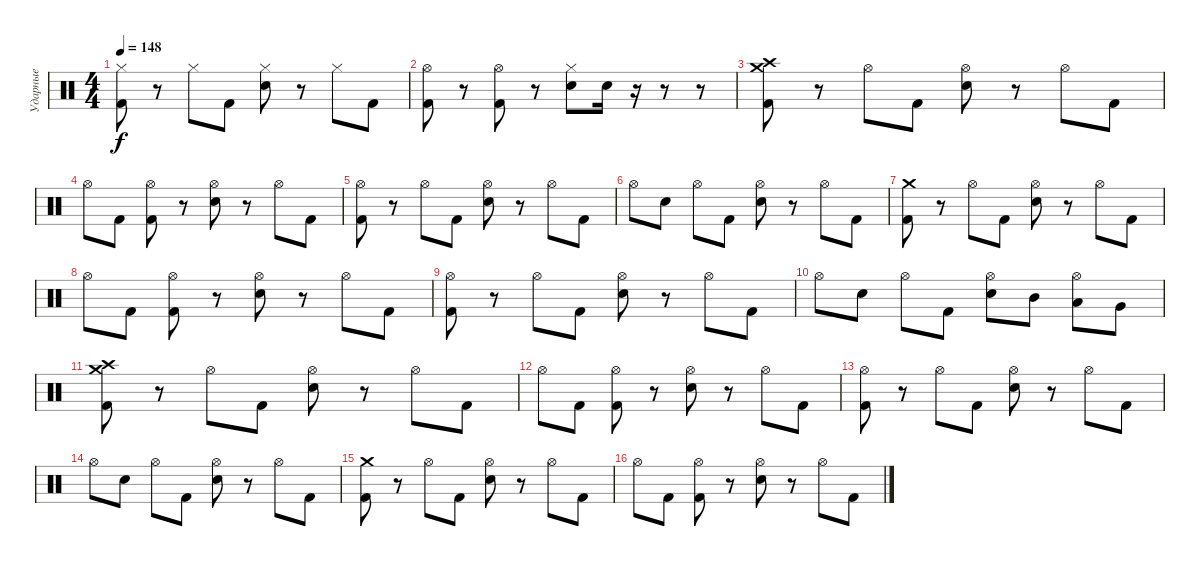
\track ("Ударные" "Ударные") {instrument percussion}
\staff {score}
\articulation defaults
\ts (4 4)
\tempo 148
\clef neutral
\ks c
("Hi-Hat (closed)" "Kick (hit) 2").8{dy f} r.8 "Hi-Hat (closed)".8 "Kick (hit) 2".8 ("Hi-Hat (closed)" "Electric Snare (hit)").8 r.8 "Hi-Hat (closed)".8 "Kick (hit) 2".8 |
("Hi-Hat (open)" "Kick (hit) 2").8 r.8 ("Hi-Hat (open)" "Kick (hit) 2").8 r.8 ("Hi-Hat (closed)" "Electric Snare (hit)").8 "Electric Snare (hit)".16 r.16 r.8 r.8 |
("Crash medium (hit)" "Crash high (hit)" "Kick (hit) 2").8 r.8 "Hi-Hat (open)".8 "Kick (hit) 2".8 ("Hi-Hat (open)" "Electric Snare (hit)").8 r.8 "Hi-Hat (open)".8 "Kick (hit) 2".8 |
"Hi-Hat (open)".8 "Kick (hit) 2".8 ("Hi-Hat (open)" "Kick (hit) 2").8 r.8 ("Hi-Hat (open)" "Electric Snare (hit)").8 r.8 "Hi-Hat (open)".8 "Kick (hit) 2".8 |
("Hi-Hat (open)" "Kick (hit) 2").8 r.8 "Hi-Hat (open)".8 "Kick (hit) 2".8 ("Hi-Hat (open)" "Electric Snare (hit)").8 r.8 "Hi-Hat (open)".8 "Kick (hit) 2".8 |
"Hi-Hat (open)".8 "Electric Snare (hit)".8 "Hi-Hat (open)".8 "Kick (hit) 2".8 ("Hi-Hat (open)" "Electric Snare (hit)").8 r.8 "Hi-Hat (open)".8 "Kick (hit) 2".8 |
("Crash medium (hit)" "Kick (hit) 2").8 r.8 "Hi-Hat (open)".8 "Kick (hit) 2".8 ("Hi-Hat (open)" "Electric Snare (hit)").8 r.8 "Hi-Hat (open)".8 "Kick (hit) 2".8 |
"Hi-Hat (open)".8 "Kick (hit) 2".8 ("Hi-Hat (open)" "Kick (hit) 2").8 r.8 ("Hi-Hat (open)" "Electric Snare (hit)").8 r.8 "Hi-Hat (open)".8 "Kick (hit) 2".8 |
("Hi-Hat (open)" "Kick (hit) 2").8 r.8 "Hi-Hat (open)".8 "Kick (hit) 2".8 ("Hi-Hat (open)" "Electric Snare (hit)").8 r.8 "Hi-Hat (open)".8 "Kick (hit) 2".8 |
"Hi-Hat (open)".8 "Electric Snare (hit)".8 "Hi-Hat (open)".8 "Kick (hit) 2".8 ("Hi-Hat (open)" "Electric Snare (hit)").8 "Mid Tom (hit)".8 ("Hi-Hat (open)" "Low Tom (hit)").8 "Very Low Tom (hit)".8 |
("Crash medium (hit)" "Crash high (hit)" "Kick (hit) 2").8 r.8 "Hi-Hat (open)".8 "Kick (hit) 2".8 ("Hi-Hat (open)" "Electric Snare (hit)").8 r.8 "Hi-Hat (open)".8 "Kick (hit) 2".8 |
"Hi-Hat (open)".8 "Kick (hit) 2".8 ("Hi-Hat (open)" "Kick (hit) 2").8 r.8 ("Hi-Hat (open)" "Electric Snare (hit)").8 r.8 "Hi-Hat (open)".8 "Kick (hit) 2".8 |
("Hi-Hat (open)" "Kick (hit) 2").8 r.8 "Hi-Hat (open)".8 "Kick (hit) 2".8 ("Hi-Hat (open)" "Electric Snare (hit)").8 r.8 "Hi-Hat (open)".8 "Kick (hit) 2".8 |
"Hi-Hat (open)".8 "Electric Snare (hit)".8 "Hi-Hat (open)".8 "Kick (hit) 2".8 ("Hi-Hat (open)" "Electric Snare (hit)").8 r.8 "Hi-Hat (open)".8 "Kick (hit) 2".8 |
("Crash medium (hit)" "Kick (hit) 2").8 r.8 "Hi-Hat (open)".8 "Kick (hit) 2".8 ("Hi-Hat (open)" "Electric Snare (hit)").8 r.8 "Hi-Hat (open)".8 "Kick (hit) 2".8 |
"Hi-Hat (open)".8 "Kick (hit) 2".8 ("Hi-Hat (open)" "Kick (hit) 2").8 r.8 ("Hi-Hat (open)" "Electric Snare (hit)").8 r.8 "Hi-Hat (open)".8 "Kick (hit) 2".8
